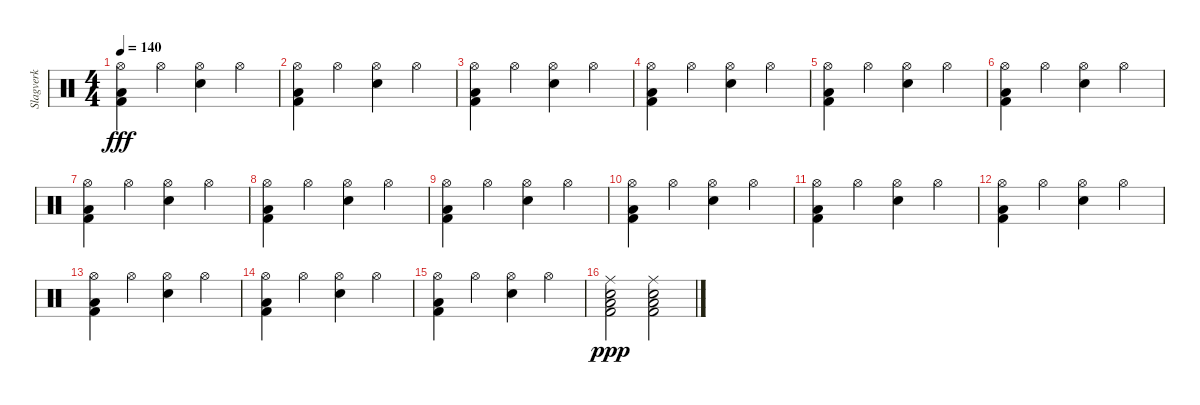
\track ("Slagverk" "Slagverk") {instrument percussion}
\staff {score}
\articulation defaults
\ts (4 4)
\tempo 140
\clef neutral
\ks c
("Hi-Hat (open)" "Low Floor Tom (hit)" "Kick (hit) 2").4{dy fff} "Hi-Hat (open)".4 ("Hi-Hat (open)" "Snare (hit) 2").4 "Hi-Hat (open)".4 |
("Hi-Hat (open)" "Low Floor Tom (hit)" "Kick (hit) 2").4 "Hi-Hat (open)".4 ("Hi-Hat (open)" "Snare (hit) 2").4 "Hi-Hat (open)".4 |
("Hi-Hat (open)" "Low Floor Tom (hit)" "Kick (hit) 2").4 "Hi-Hat (open)".4 ("Hi-Hat (open)" "Snare (hit) 2").4 "Hi-Hat (open)".4 |
("Hi-Hat (open)" "Low Floor Tom (hit)" "Kick (hit) 2").4 "Hi-Hat (open)".4 ("Hi-Hat (open)" "Snare (hit) 2").4 "Hi-Hat (open)".4 |
("Hi-Hat (open)" "Low Floor Tom (hit)" "Kick (hit) 2").4 "Hi-Hat (open)".4 ("Hi-Hat (open)" "Snare (hit) 2").4 "Hi-Hat (open)".4 |
("Hi-Hat (open)" "Low Floor Tom (hit)" "Kick (hit) 2").4 "Hi-Hat (open)".4 ("Hi-Hat (open)" "Snare (hit) 2").4 "Hi-Hat (open)".4 |
("Hi-Hat (open)" "Low Floor Tom (hit)" "Kick (hit) 2").4 "Hi-Hat (open)".4 ("Hi-Hat (open)" "Snare (hit) 2").4 "Hi-Hat (open)".4 |
("Hi-Hat (open)" "Low Floor Tom (hit)" "Kick (hit) 2").4 "Hi-Hat (open)".4 ("Hi-Hat (open)" "Snare (hit) 2").4 "Hi-Hat (open)".4 |
("Hi-Hat (open)" "Low Floor Tom (hit)" "Kick (hit) 2").4 "Hi-Hat (open)".4 ("Hi-Hat (open)" "Snare (hit) 2").4 "Hi-Hat (open)".4 |
("Hi-Hat (open)" "Low Floor Tom (hit)" "Kick (hit) 2").4 "Hi-Hat (open)".4 ("Hi-Hat (open)" "Snare (hit) 2").4 "Hi-Hat (open)".4 |
("Hi-Hat (open)" "Low Floor Tom (hit)" "Kick (hit) 2").4 "Hi-Hat (open)".4 ("Hi-Hat (open)" "Snare (hit) 2").4 "Hi-Hat (open)".4 |
("Hi-Hat (open)" "Low Floor Tom (hit)" "Kick (hit) 2").4 "Hi-Hat (open)".4 ("Hi-Hat (open)" "Snare (hit) 2").4 "Hi-Hat (open)".4 |
("Hi-Hat (open)" "Low Floor Tom (hit)" "Kick (hit) 2").4 "Hi-Hat (open)".4 ("Hi-Hat (open)" "Snare (hit) 2").4 "Hi-Hat (open)".4 |
("Hi-Hat (open)" "Low Floor Tom (hit)" "Kick (hit) 2").4 "Hi-Hat (open)".4 ("Hi-Hat (open)" "Snare (hit) 2").4 "Hi-Hat (open)".4 |
("Hi-Hat (open)" "Low Floor Tom (hit)" "Kick (hit) 2").4 "Hi-Hat (open)".4 ("Hi-Hat (open)" "Snare (hit) 2").4 "Hi-Hat (open)".4 |
("Ride (middle)" "Low Floor Tom (hit)" "Kick (hit) 2" "Snare (hit) 2").2{dy ppp} ("Ride (middle)" "Low Floor Tom (hit)" "Kick (hit) 2" "Snare (hit) 2").2
